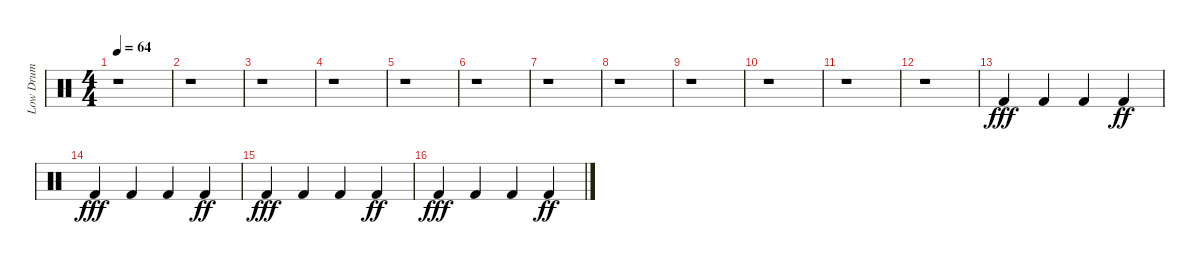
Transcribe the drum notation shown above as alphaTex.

\track ("Low Drum" "Low Drum") {instrument percussion}
\staff {score}
\articulation defaults
\ts (4 4)
\tempo 64
\clef neutral
\ks c
r.1{dy fff} |
r.1 |
r.1 |
r.1 |
r.1 |
r.1 |
r.1 |
r.1 |
r.1 |
r.1 |
r.1 |
r.1 |
"Kick (hit) 2".4 "Kick (hit) 2".4 "Kick (hit) 2".4 "Kick (hit) 2".4{dy ff} |
"Kick (hit) 2".4{dy fff} "Kick (hit) 2".4 "Kick (hit) 2".4 "Kick (hit) 2".4{dy ff} |
"Kick (hit) 2".4{dy fff} "Kick (hit) 2".4 "Kick (hit) 2".4 "Kick (hit) 2".4{dy ff} |
"Kick (hit) 2".4{dy fff} "Kick (hit) 2".4 "Kick (hit) 2".4 "Kick (hit) 2".4{dy ff}
